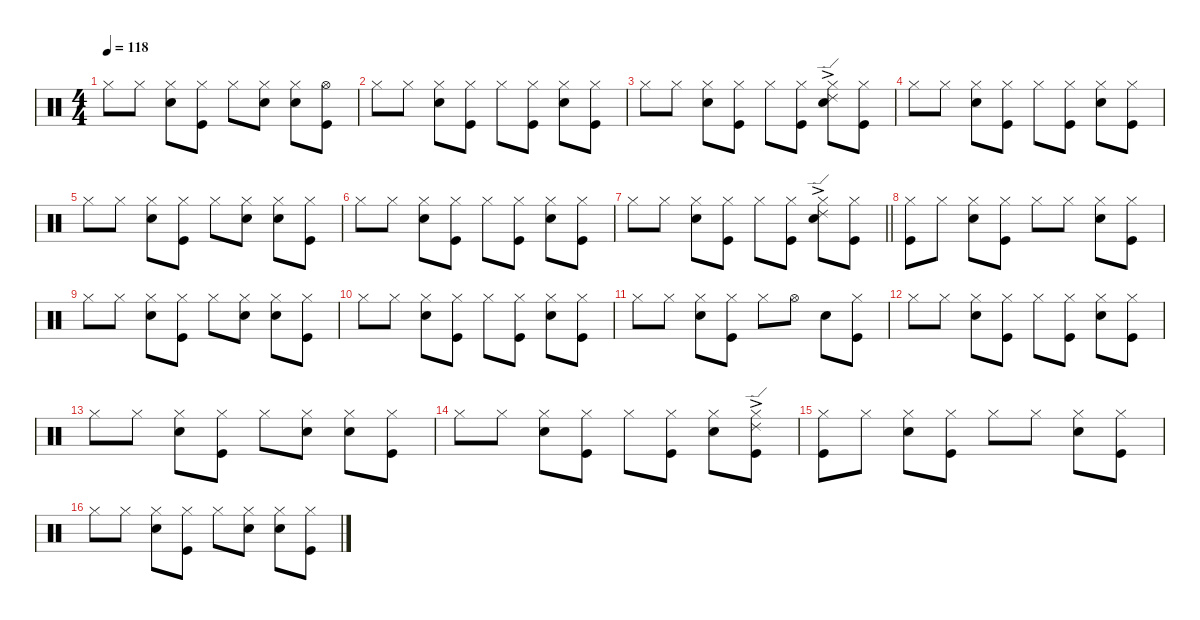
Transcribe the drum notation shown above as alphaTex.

\defaultSystemsLayout 4
\hideDynamics
\bracketExtendMode nobrackets
\singleTrackTrackNamePolicy hidden
\multiTrackTrackNamePolicy hidden
\firstSystemTrackNameMode fullname
\otherSystemsTrackNameOrientation horizontal
\track ("Drums" "drm.") {instrument percussion}
\staff {score}
\articulation defaults
\ts (4 4)
\tempo 118
\clef neutral
\ks c "Hi-Hat (closed)".8{dy f beam Down} "Hi-Hat (closed)".8{beam Down}
("Hi-Hat (closed)" "Snare (hit) 2").8{beam Down} ("Hi-Hat (closed)" "Kick (hit)").8{beam Down} "Hi-Hat (closed)".8{beam Down} ("Hi-Hat (closed)" "Snare (hit) 2").8{beam Down} ("Hi-Hat (closed)" "Snare (hit) 2").8{beam Down} ("Hi-Hat (open)" "Kick (hit)").8{beam Down} |
"Hi-Hat (closed)".8{beam Down} "Hi-Hat (closed)".8{beam Down} ("Hi-Hat (closed)" "Snare (hit) 2").8{beam Down} ("Hi-Hat (closed)" "Kick (hit)").8{beam Down} "Hi-Hat (closed)".8{beam Down} ("Hi-Hat (closed)" "Kick (hit)").8{beam Down} ("Hi-Hat (closed)" "Snare (hit) 2").8{beam Down} ("Hi-Hat (closed)" "Kick (hit)").8{beam Down} |
"Hi-Hat (closed)".8{beam Down} "Hi-Hat (closed)".8{beam Down} ("Hi-Hat (closed)" "Snare (hit) 2").8{beam Down} ("Hi-Hat (closed)" "Kick (hit)").8{beam Down} "Hi-Hat (closed)".8{beam Down} ("Hi-Hat (closed)" "Kick (hit)").8{beam Down} ("Hi-Hat (closed)" "Snare (hit) 2" "Ride (edge) 2"{ac}).8{beam Down} ("Hi-Hat (closed)" "Kick (hit)").8{beam Down} |
"Hi-Hat (closed)".8{beam Down} "Hi-Hat (closed)".8{beam Down} ("Hi-Hat (closed)" "Snare (hit) 2").8{beam Down} ("Hi-Hat (closed)" "Kick (hit)").8{beam Down} "Hi-Hat (closed)".8{beam Down} ("Hi-Hat (closed)" "Kick (hit)").8{beam Down} ("Hi-Hat (closed)" "Snare (hit) 2").8{beam Down} ("Hi-Hat (closed)" "Kick (hit)").8{beam Down} |
"Hi-Hat (closed)".8{beam Down} "Hi-Hat (closed)".8{beam Down} ("Hi-Hat (closed)" "Snare (hit) 2").8{beam Down} ("Hi-Hat (closed)" "Kick (hit)").8{beam Down} "Hi-Hat (closed)".8{beam Down} ("Hi-Hat (closed)" "Snare (hit) 2").8{beam Down} ("Hi-Hat (closed)" "Snare (hit) 2").8{beam Down} ("Hi-Hat (closed)" "Kick (hit)").8{beam Down} |
"Hi-Hat (closed)".8{beam Down} "Hi-Hat (closed)".8{beam Down} ("Hi-Hat (closed)" "Snare (hit) 2").8{beam Down} ("Hi-Hat (closed)" "Kick (hit)").8{beam Down} "Hi-Hat (closed)".8{beam Down} ("Hi-Hat (closed)" "Kick (hit)").8{beam Down} ("Hi-Hat (closed)" "Snare (hit) 2").8{beam Down} ("Hi-Hat (closed)" "Kick (hit)").8{beam Down} |
\barLineRight lightlight "Hi-Hat (closed)".8{beam Down} "Hi-Hat (closed)".8{beam Down}
("Hi-Hat (closed)" "Snare (hit) 2").8{beam Down} ("Hi-Hat (closed)" "Kick (hit)").8{beam Down} "Hi-Hat (closed)".8{beam Down} ("Hi-Hat (closed)" "Kick (hit)").8{beam Down} ("Hi-Hat (closed)" "Snare (hit) 2" "Ride (edge) 2"{ac}).8{beam Down} ("Hi-Hat (closed)" "Kick (hit)").8{beam Down} |
("Hi-Hat (closed)" "Kick (hit)").8{beam Down} "Hi-Hat (closed)".8{beam Down} ("Hi-Hat (closed)" "Snare (hit) 2").8{beam Down} ("Hi-Hat (closed)" "Kick (hit)").8{beam Down} "Hi-Hat (closed)".8{beam Down} "Hi-Hat (closed)".8{beam Down} ("Hi-Hat (closed)" "Snare (hit) 2").8{beam Down} ("Hi-Hat (closed)" "Kick (hit)").8{beam Down} |
"Hi-Hat (closed)".8{beam Down} "Hi-Hat (closed)".8{beam Down} ("Hi-Hat (closed)" "Snare (hit) 2").8{beam Down} ("Hi-Hat (closed)" "Kick (hit)").8{beam Down} "Hi-Hat (closed)".8{beam Down} ("Hi-Hat (closed)" "Snare (hit) 2").8{beam Down} ("Hi-Hat (closed)" "Snare (hit) 2").8{beam Down} ("Hi-Hat (closed)" "Kick (hit)").8{beam Down} |
"Hi-Hat (closed)".8{beam Down} "Hi-Hat (closed)".8{beam Down} ("Hi-Hat (closed)" "Snare (hit) 2").8{beam Down} ("Hi-Hat (closed)" "Kick (hit)").8{beam Down} "Hi-Hat (closed)".8{beam Down} ("Hi-Hat (closed)" "Kick (hit)").8{beam Down} ("Hi-Hat (closed)" "Snare (hit) 2").8{beam Down} ("Hi-Hat (closed)" "Kick (hit)").8{beam Down} |
"Hi-Hat (closed)".8{beam Down} "Hi-Hat (closed)".8{beam Down} ("Hi-Hat (closed)" "Snare (hit) 2").8{beam Down} ("Hi-Hat (closed)" "Kick (hit)").8{beam Down} "Hi-Hat (closed)".8{beam Down} "Hi-Hat (open)".8{beam Down} "Snare (hit) 2".8{beam Down} ("Hi-Hat (closed)" "Kick (hit)").8{beam Down} |
"Hi-Hat (closed)".8{beam Down} "Hi-Hat (closed)".8{beam Down} ("Hi-Hat (closed)" "Snare (hit) 2").8{beam Down} ("Hi-Hat (closed)" "Kick (hit)").8{beam Down} "Hi-Hat (closed)".8{beam Down} ("Hi-Hat (closed)" "Kick (hit)").8{beam Down} ("Hi-Hat (closed)" "Snare (hit) 2").8{beam Down} ("Hi-Hat (closed)" "Kick (hit)").8{beam Down} |
"Hi-Hat (closed)".8{beam Down} "Hi-Hat (closed)".8{beam Down} ("Hi-Hat (closed)" "Snare (hit) 2").8{beam Down} ("Hi-Hat (closed)" "Kick (hit)").8{beam Down} "Hi-Hat (closed)".8{beam Down} ("Hi-Hat (closed)" "Snare (hit) 2").8{beam Down} ("Hi-Hat (closed)" "Snare (hit) 2").8{beam Down} ("Hi-Hat (closed)" "Kick (hit)").8{beam Down} |
"Hi-Hat (closed)".8{beam Down} "Hi-Hat (closed)".8{beam Down} ("Hi-Hat (closed)" "Snare (hit) 2").8{beam Down} ("Hi-Hat (closed)" "Kick (hit)").8{beam Down} "Hi-Hat (closed)".8{beam Down} ("Hi-Hat (closed)" "Kick (hit)").8{beam Down} ("Hi-Hat (closed)" "Snare (hit) 2").8{beam Down} ("Hi-Hat (closed)" "Ride (edge) 2"{ac} "Kick (hit)").8{beam Down} |
("Hi-Hat (closed)" "Kick (hit)").8{beam Down} "Hi-Hat (closed)".8{beam Down} ("Hi-Hat (closed)" "Snare (hit) 2").8{beam Down} ("Hi-Hat (closed)" "Kick (hit)").8{beam Down} "Hi-Hat (closed)".8{beam Down} "Hi-Hat (closed)".8{beam Down} ("Hi-Hat (closed)" "Snare (hit) 2").8{beam Down} ("Hi-Hat (closed)" "Kick (hit)").8{beam Down} |
"Hi-Hat (closed)".8{beam Down} "Hi-Hat (closed)".8{beam Down} ("Hi-Hat (closed)" "Snare (hit) 2").8{beam Down} ("Hi-Hat (closed)" "Kick (hit)").8{beam Down} "Hi-Hat (closed)".8{beam Down} ("Hi-Hat (closed)" "Snare (hit) 2").8{beam Down} ("Hi-Hat (closed)" "Snare (hit) 2").8{beam Down} ("Hi-Hat (closed)" "Kick (hit)").8{beam Down}
